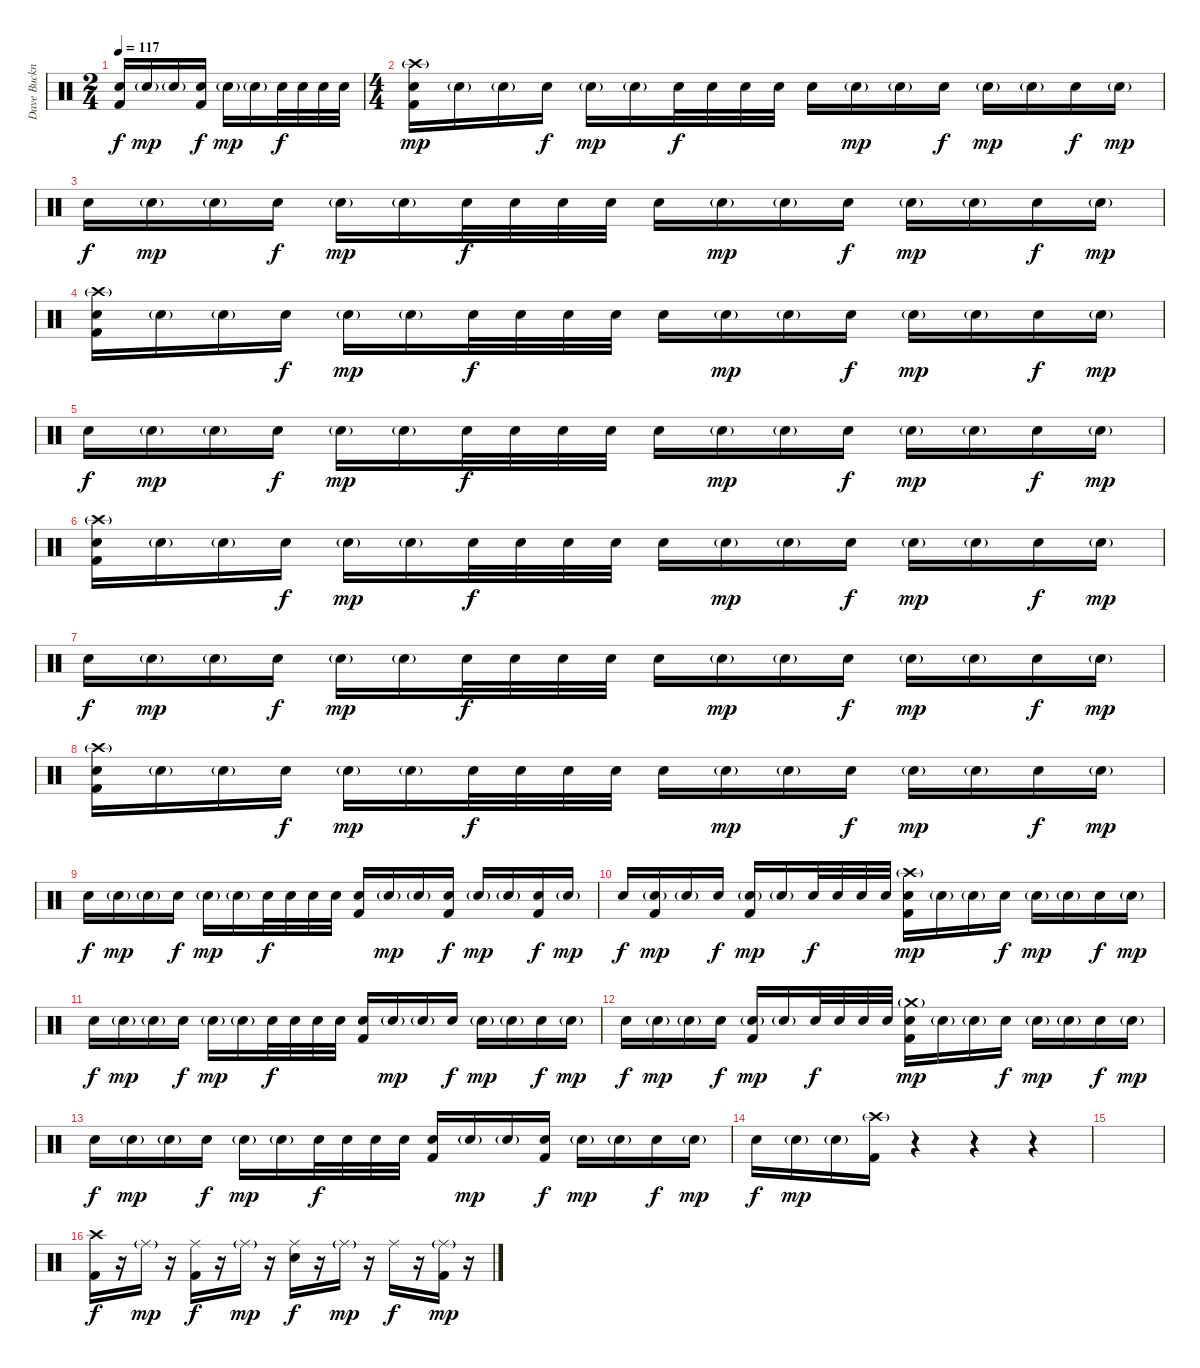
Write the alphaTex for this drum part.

\track ("Dave Buckner RULZ!!! (Drums)" "Dave Buckn") {instrument percussion}
\staff {score}
\articulation defaults
\ts (2 4)
\tempo 117
\clef neutral
\ks c
("Electric Snare (hit)" "Kick (hit) 2").16{dy f} "Electric Snare (hit)"{g}.16{dy mp} "Electric Snare (hit)"{g}.16 ("Electric Snare (hit)" "Kick (hit) 2").16{dy f} "Electric Snare (hit)"{g}.16{dy mp} "Electric Snare (hit)"{g}.16 "Electric Snare (hit)".32{dy f} "Electric Snare (hit)".32 "Electric Snare (hit)".32 "Electric Snare (hit)".32 |
\ts (4 4)
("Crash high (hit)"{g} "Electric Snare (hit)" "Kick (hit) 2").16{dy mp} "Electric Snare (hit)"{g}.16 "Electric Snare (hit)"{g}.16 "Electric Snare (hit)".16{dy f} "Electric Snare (hit)"{g}.16{dy mp} "Electric Snare (hit)"{g}.16 "Electric Snare (hit)".32{dy f} "Electric Snare (hit)".32 "Electric Snare (hit)".32 "Electric Snare (hit)".32 "Electric Snare (hit)".16 "Electric Snare (hit)"{g}.16{dy mp} "Electric Snare (hit)"{g}.16 "Electric Snare (hit)".16{dy f} "Electric Snare (hit)"{g}.16{dy mp} "Electric Snare (hit)"{g}.16 "Electric Snare (hit)".16{dy f} "Electric Snare (hit)"{g}.16{dy mp} |
"Electric Snare (hit)".16{dy f} "Electric Snare (hit)"{g}.16{dy mp} "Electric Snare (hit)"{g}.16 "Electric Snare (hit)".16{dy f} "Electric Snare (hit)"{g}.16{dy mp} "Electric Snare (hit)"{g}.16 "Electric Snare (hit)".32{dy f} "Electric Snare (hit)".32 "Electric Snare (hit)".32 "Electric Snare (hit)".32 "Electric Snare (hit)".16 "Electric Snare (hit)"{g}.16{dy mp} "Electric Snare (hit)"{g}.16 "Electric Snare (hit)".16{dy f} "Electric Snare (hit)"{g}.16{dy mp} "Electric Snare (hit)"{g}.16 "Electric Snare (hit)".16{dy f} "Electric Snare (hit)"{g}.16{dy mp} |
("Crash high (hit)"{g} "Electric Snare (hit)" "Kick (hit) 2").16 "Electric Snare (hit)"{g}.16 "Electric Snare (hit)"{g}.16 "Electric Snare (hit)".16{dy f} "Electric Snare (hit)"{g}.16{dy mp} "Electric Snare (hit)"{g}.16 "Electric Snare (hit)".32{dy f} "Electric Snare (hit)".32 "Electric Snare (hit)".32 "Electric Snare (hit)".32 "Electric Snare (hit)".16 "Electric Snare (hit)"{g}.16{dy mp} "Electric Snare (hit)"{g}.16 "Electric Snare (hit)".16{dy f} "Electric Snare (hit)"{g}.16{dy mp} "Electric Snare (hit)"{g}.16 "Electric Snare (hit)".16{dy f} "Electric Snare (hit)"{g}.16{dy mp} |
"Electric Snare (hit)".16{dy f} "Electric Snare (hit)"{g}.16{dy mp} "Electric Snare (hit)"{g}.16 "Electric Snare (hit)".16{dy f} "Electric Snare (hit)"{g}.16{dy mp} "Electric Snare (hit)"{g}.16 "Electric Snare (hit)".32{dy f} "Electric Snare (hit)".32 "Electric Snare (hit)".32 "Electric Snare (hit)".32 "Electric Snare (hit)".16 "Electric Snare (hit)"{g}.16{dy mp} "Electric Snare (hit)"{g}.16 "Electric Snare (hit)".16{dy f} "Electric Snare (hit)"{g}.16{dy mp} "Electric Snare (hit)"{g}.16 "Electric Snare (hit)".16{dy f} "Electric Snare (hit)"{g}.16{dy mp} |
("Crash high (hit)"{g} "Electric Snare (hit)" "Kick (hit) 2").16 "Electric Snare (hit)"{g}.16 "Electric Snare (hit)"{g}.16 "Electric Snare (hit)".16{dy f} "Electric Snare (hit)"{g}.16{dy mp} "Electric Snare (hit)"{g}.16 "Electric Snare (hit)".32{dy f} "Electric Snare (hit)".32 "Electric Snare (hit)".32 "Electric Snare (hit)".32 "Electric Snare (hit)".16 "Electric Snare (hit)"{g}.16{dy mp} "Electric Snare (hit)"{g}.16 "Electric Snare (hit)".16{dy f} "Electric Snare (hit)"{g}.16{dy mp} "Electric Snare (hit)"{g}.16 "Electric Snare (hit)".16{dy f} "Electric Snare (hit)"{g}.16{dy mp} |
"Electric Snare (hit)".16{dy f} "Electric Snare (hit)"{g}.16{dy mp} "Electric Snare (hit)"{g}.16 "Electric Snare (hit)".16{dy f} "Electric Snare (hit)"{g}.16{dy mp} "Electric Snare (hit)"{g}.16 "Electric Snare (hit)".32{dy f} "Electric Snare (hit)".32 "Electric Snare (hit)".32 "Electric Snare (hit)".32 "Electric Snare (hit)".16 "Electric Snare (hit)"{g}.16{dy mp} "Electric Snare (hit)"{g}.16 "Electric Snare (hit)".16{dy f} "Electric Snare (hit)"{g}.16{dy mp} "Electric Snare (hit)"{g}.16 "Electric Snare (hit)".16{dy f} "Electric Snare (hit)"{g}.16{dy mp} |
("Crash high (hit)"{g} "Electric Snare (hit)" "Kick (hit) 2").16 "Electric Snare (hit)"{g}.16 "Electric Snare (hit)"{g}.16 "Electric Snare (hit)".16{dy f} "Electric Snare (hit)"{g}.16{dy mp} "Electric Snare (hit)"{g}.16 "Electric Snare (hit)".32{dy f} "Electric Snare (hit)".32 "Electric Snare (hit)".32 "Electric Snare (hit)".32 "Electric Snare (hit)".16 "Electric Snare (hit)"{g}.16{dy mp} "Electric Snare (hit)"{g}.16 "Electric Snare (hit)".16{dy f} "Electric Snare (hit)"{g}.16{dy mp} "Electric Snare (hit)"{g}.16 "Electric Snare (hit)".16{dy f} "Electric Snare (hit)"{g}.16{dy mp} |
"Electric Snare (hit)".16{dy f} "Electric Snare (hit)"{g}.16{dy mp} "Electric Snare (hit)"{g}.16 "Electric Snare (hit)".16{dy f} "Electric Snare (hit)"{g}.16{dy mp} "Electric Snare (hit)"{g}.16 "Electric Snare (hit)".32{dy f} "Electric Snare (hit)".32 "Electric Snare (hit)".32 "Electric Snare (hit)".32 ("Electric Snare (hit)" "Kick (hit) 2").16 "Electric Snare (hit)"{g}.16{dy mp} "Electric Snare (hit)"{g}.16 ("Electric Snare (hit)" "Kick (hit) 2").16{dy f} "Electric Snare (hit)"{g}.16{dy mp} "Electric Snare (hit)"{g}.16 ("Electric Snare (hit)" "Kick (hit) 2").16{dy f} "Electric Snare (hit)"{g}.16{dy mp} |
"Electric Snare (hit)".16{dy f} ("Electric Snare (hit)"{g} "Kick (hit) 2").16{dy mp} "Electric Snare (hit)"{g}.16 "Electric Snare (hit)".16{dy f} ("Electric Snare (hit)"{g} "Kick (hit) 2").16{dy mp} "Electric Snare (hit)"{g}.16 "Electric Snare (hit)".32{dy f} "Electric Snare (hit)".32 "Electric Snare (hit)".32 "Electric Snare (hit)".32 ("Crash high (hit)"{g} "Electric Snare (hit)" "Kick (hit) 2").16{dy mp} "Electric Snare (hit)"{g}.16 "Electric Snare (hit)"{g}.16 "Electric Snare (hit)".16{dy f} "Electric Snare (hit)"{g}.16{dy mp} "Electric Snare (hit)"{g}.16 "Electric Snare (hit)".16{dy f} "Electric Snare (hit)"{g}.16{dy mp} |
"Electric Snare (hit)".16{dy f} "Electric Snare (hit)"{g}.16{dy mp} "Electric Snare (hit)"{g}.16 "Electric Snare (hit)".16{dy f} "Electric Snare (hit)"{g}.16{dy mp} "Electric Snare (hit)"{g}.16 "Electric Snare (hit)".32{dy f} "Electric Snare (hit)".32 "Electric Snare (hit)".32 "Electric Snare (hit)".32 ("Electric Snare (hit)" "Kick (hit) 2").16 "Electric Snare (hit)"{g}.16{dy mp} "Electric Snare (hit)"{g}.16 "Electric Snare (hit)".16{dy f} "Electric Snare (hit)"{g}.16{dy mp} "Electric Snare (hit)"{g}.16 "Electric Snare (hit)".16{dy f} "Electric Snare (hit)"{g}.16{dy mp} |
"Electric Snare (hit)".16{dy f} "Electric Snare (hit)"{g}.16{dy mp} "Electric Snare (hit)"{g}.16 "Electric Snare (hit)".16{dy f} ("Electric Snare (hit)"{g} "Kick (hit) 2").16{dy mp} "Electric Snare (hit)"{g}.16 "Electric Snare (hit)".32{dy f} "Electric Snare (hit)".32 "Electric Snare (hit)".32 "Electric Snare (hit)".32 ("Crash medium (hit)"{g} "Electric Snare (hit)" "Kick (hit) 2").16{dy mp} "Electric Snare (hit)"{g}.16 "Electric Snare (hit)"{g}.16 "Electric Snare (hit)".16{dy f} "Electric Snare (hit)"{g}.16{dy mp} "Electric Snare (hit)"{g}.16 "Electric Snare (hit)".16{dy f} "Electric Snare (hit)"{g}.16{dy mp} |
"Electric Snare (hit)".16{dy f} "Electric Snare (hit)"{g}.16{dy mp} "Electric Snare (hit)"{g}.16 "Electric Snare (hit)".16{dy f} "Electric Snare (hit)"{g}.16{dy mp} "Electric Snare (hit)"{g}.16 "Electric Snare (hit)".32{dy f} "Electric Snare (hit)".32 "Electric Snare (hit)".32 "Electric Snare (hit)".32 ("Electric Snare (hit)" "Kick (hit) 2").16 "Electric Snare (hit)"{g}.16{dy mp} "Electric Snare (hit)"{g}.16 ("Electric Snare (hit)" "Kick (hit) 2").16{dy f} "Electric Snare (hit)"{g}.16{dy mp} "Electric Snare (hit)"{g}.16 "Electric Snare (hit)".16{dy f} "Electric Snare (hit)"{g}.16{dy mp} |
"Electric Snare (hit)".16{dy f} "Electric Snare (hit)"{g}.16{dy mp} "Electric Snare (hit)"{g}.16 ("Crash high (hit)"{g} "Kick (hit) 2").16 r.4 r.4 r.4 |
|
("Crash high (hit)" "Kick (hit) 2").16{dy f volume 12} r.16 "Ride (middle)"{g}.16{dy mp} r.16 ("Ride (middle)" "Kick (hit) 2").16{dy f} r.16 "Ride (middle)"{g}.16{dy mp} r.16 ("Ride (middle)" "Electric Snare (hit)").16{dy f} r.16 "Ride (middle)"{g}.16{dy mp} r.16 "Ride (middle)".16{dy f} r.16 ("Ride (middle)"{g} "Kick (hit) 2").16{dy mp} r.16
